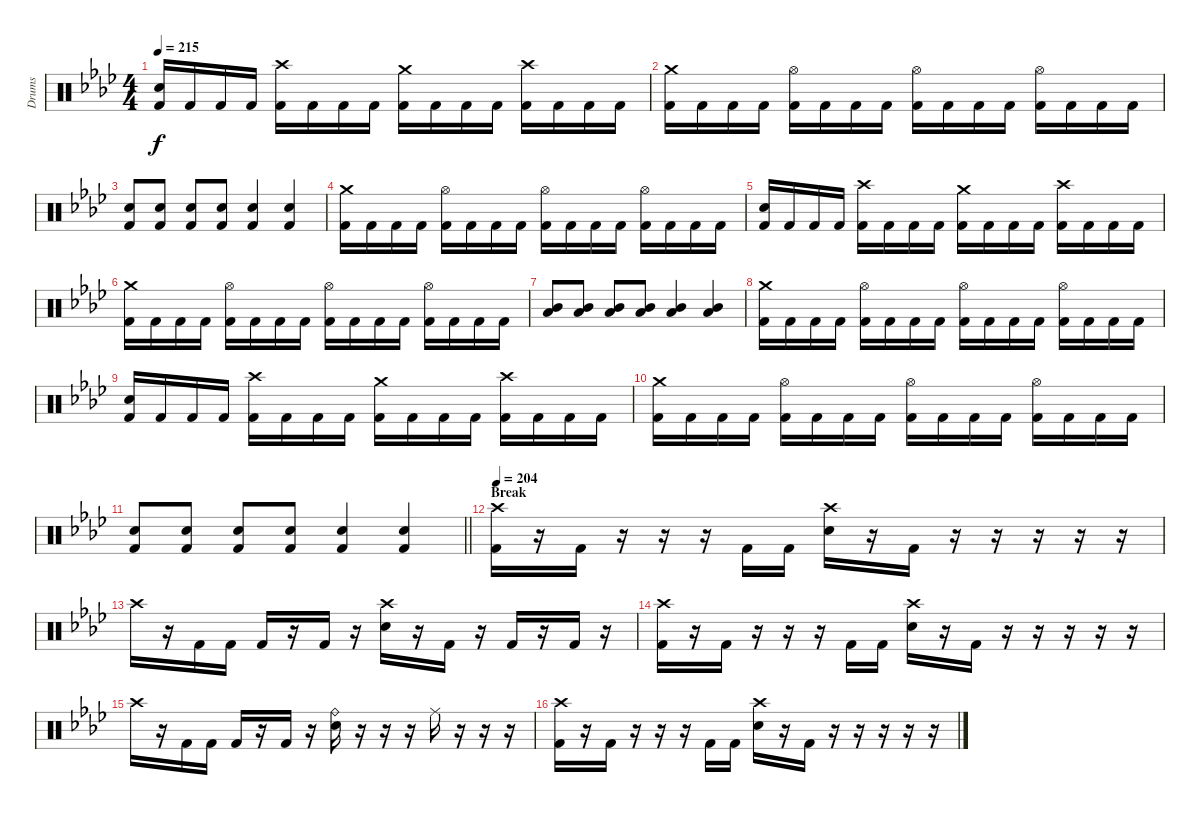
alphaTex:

\bracketExtendMode groupsimilarinstruments
\otherSystemsTrackNameOrientation horizontal
\track ("Guyot Begin-Benoit" "Drums") {instrument percussion}
\staff {score}
\articulation defaults
\ts (4 4)
\tempo 215
\clef neutral
\ks ab
("Snare (hit) 2"{acc forcenatural} "Kick (hit) 2"{acc forcenatural}).16{dy f beam Up} "Kick (hit) 2"{acc forcenatural}.16{beam Up} "Kick (hit) 2"{acc forcenatural}.16{beam Up} "Kick (hit) 2"{acc forcenatural}.16{beam Up} ("Crash high (hit)"{acc forcenatural} "Kick (hit) 2"{acc forcenatural}).16{beam Down} "Kick (hit) 2"{acc forcenatural}.16{beam Down} "Kick (hit) 2"{acc forcenatural}.16{beam Down} "Kick (hit) 2"{acc forcenatural}.16{beam Down} ("Crash medium (hit)"{acc forcenatural} "Kick (hit) 2"{acc forcenatural}).16{beam Down} "Kick (hit) 2"{acc forcenatural}.16{beam Down} "Kick (hit) 2"{acc forcenatural}.16{beam Down} "Kick (hit) 2"{acc forcenatural}.16{beam Down} ("Crash high (hit)"{acc forcenatural} "Kick (hit) 2"{acc forcenatural}).16{beam Down} "Kick (hit) 2"{acc forcenatural}.16{beam Down} "Kick (hit) 2"{acc forcenatural}.16{beam Down} "Kick (hit) 2"{acc forcenatural}.16{beam Down} |
("Crash medium (hit)"{acc forcenatural} "Kick (hit) 2"{acc forcenatural}).16{beam Down} "Kick (hit) 2"{acc forcenatural}.16{beam Down} "Kick (hit) 2"{acc forcenatural}.16{beam Down} "Kick (hit) 2"{acc forcenatural}.16{beam Down} ("Hi-Hat (open)"{acc forcenatural} "Kick (hit) 2"{acc forcenatural}).16{beam Down} "Kick (hit) 2"{acc forcenatural}.16{beam Down} "Kick (hit) 2"{acc forcenatural}.16{beam Down} "Kick (hit) 2"{acc forcenatural}.16{beam Down} ("Hi-Hat (open)"{acc forcenatural} "Kick (hit) 2"{acc forcenatural}).16{beam Down} "Kick (hit) 2"{acc forcenatural}.16{beam Down} "Kick (hit) 2"{acc forcenatural}.16{beam Down} "Kick (hit) 2"{acc forcenatural}.16{beam Down} ("Hi-Hat (open)"{acc forcenatural} "Kick (hit) 2"{acc forcenatural}).16{beam Down} "Kick (hit) 2"{acc forcenatural}.16{beam Down} "Kick (hit) 2"{acc forcenatural}.16{beam Down} "Kick (hit) 2"{acc forcenatural}.16{beam Down} |
("Snare (hit) 2"{acc forcenatural} "Kick (hit) 2"{acc forcenatural}).8{beam Up} ("Snare (hit) 2"{acc forcenatural} "Kick (hit) 2"{acc forcenatural}).8{beam Up} ("Snare (hit) 2"{acc forcenatural} "Kick (hit) 2"{acc forcenatural}).8{beam Up} ("Snare (hit) 2"{acc forcenatural} "Kick (hit) 2"{acc forcenatural}).8{beam Up} ("Snare (hit) 2"{acc forcenatural} "Kick (hit) 2"{acc forcenatural}).4{beam Up} ("Snare (hit) 2"{acc forcenatural} "Kick (hit) 2"{acc forcenatural}).4{beam Up} |
("Crash medium (hit)"{acc forcenatural} "Kick (hit) 2"{acc forcenatural}).16{beam Down} "Kick (hit) 2"{acc forcenatural}.16{beam Down} "Kick (hit) 2"{acc forcenatural}.16{beam Down} "Kick (hit) 2"{acc forcenatural}.16{beam Down} ("Hi-Hat (open)"{acc forcenatural} "Kick (hit) 2"{acc forcenatural}).16{beam Down} "Kick (hit) 2"{acc forcenatural}.16{beam Down} "Kick (hit) 2"{acc forcenatural}.16{beam Down} "Kick (hit) 2"{acc forcenatural}.16{beam Down} ("Hi-Hat (open)"{acc forcenatural} "Kick (hit) 2"{acc forcenatural}).16{beam Down} "Kick (hit) 2"{acc forcenatural}.16{beam Down} "Kick (hit) 2"{acc forcenatural}.16{beam Down} "Kick (hit) 2"{acc forcenatural}.16{beam Down} ("Hi-Hat (open)"{acc forcenatural} "Kick (hit) 2"{acc forcenatural}).16{beam Down} "Kick (hit) 2"{acc forcenatural}.16{beam Down} "Kick (hit) 2"{acc forcenatural}.16{beam Down} "Kick (hit) 2"{acc forcenatural}.16{beam Down} |
("Snare (hit) 2"{acc forcenatural} "Kick (hit) 2"{acc forcenatural}).16{beam Up} "Kick (hit) 2"{acc forcenatural}.16{beam Up} "Kick (hit) 2"{acc forcenatural}.16{beam Up} "Kick (hit) 2"{acc forcenatural}.16{beam Up} ("Crash high (hit)"{acc forcenatural} "Kick (hit) 2"{acc forcenatural}).16{beam Down} "Kick (hit) 2"{acc forcenatural}.16{beam Down} "Kick (hit) 2"{acc forcenatural}.16{beam Down} "Kick (hit) 2"{acc forcenatural}.16{beam Down} ("Crash medium (hit)"{acc forcenatural} "Kick (hit) 2"{acc forcenatural}).16{beam Down} "Kick (hit) 2"{acc forcenatural}.16{beam Down} "Kick (hit) 2"{acc forcenatural}.16{beam Down} "Kick (hit) 2"{acc forcenatural}.16{beam Down} ("Crash high (hit)"{acc forcenatural} "Kick (hit) 2"{acc forcenatural}).16{beam Down} "Kick (hit) 2"{acc forcenatural}.16{beam Down} "Kick (hit) 2"{acc forcenatural}.16{beam Down} "Kick (hit) 2"{acc forcenatural}.16{beam Down} |
("Crash medium (hit)"{acc forcenatural} "Kick (hit) 2"{acc forcenatural}).16{beam Down} "Kick (hit) 2"{acc forcenatural}.16{beam Down} "Kick (hit) 2"{acc forcenatural}.16{beam Down} "Kick (hit) 2"{acc forcenatural}.16{beam Down} ("Hi-Hat (open)"{acc forcenatural} "Kick (hit) 2"{acc forcenatural}).16{beam Down} "Kick (hit) 2"{acc forcenatural}.16{beam Down} "Kick (hit) 2"{acc forcenatural}.16{beam Down} "Kick (hit) 2"{acc forcenatural}.16{beam Down} ("Hi-Hat (open)"{acc forcenatural} "Kick (hit) 2"{acc forcenatural}).16{beam Down} "Kick (hit) 2"{acc forcenatural}.16{beam Down} "Kick (hit) 2"{acc forcenatural}.16{beam Down} "Kick (hit) 2"{acc forcenatural}.16{beam Down} ("Hi-Hat (open)"{acc forcenatural} "Kick (hit) 2"{acc forcenatural}).16{beam Down} "Kick (hit) 2"{acc forcenatural}.16{beam Down} "Kick (hit) 2"{acc forcenatural}.16{beam Down} "Kick (hit) 2"{acc forcenatural}.16{beam Down} |
("Mid Tom (hit)"{acc forcenatural} "Low Tom (hit)"{acc forcenatural}).8{beam Up} ("Mid Tom (hit)"{acc forcenatural} "Low Tom (hit)"{acc forcenatural}).8{beam Up} ("Mid Tom (hit)"{acc forcenatural} "Low Tom (hit)"{acc forcenatural}).8{beam Up} ("Mid Tom (hit)"{acc forcenatural} "Low Tom (hit)"{acc forcenatural}).8{beam Up} ("Mid Tom (hit)"{acc forcenatural} "Low Tom (hit)"{acc forcenatural}).4{beam Up} ("Mid Tom (hit)"{acc forcenatural} "Low Tom (hit)"{acc forcenatural}).4{beam Up} |
("Crash medium (hit)"{acc forcenatural} "Kick (hit) 2"{acc forcenatural}).16{beam Down} "Kick (hit) 2"{acc forcenatural}.16{beam Down} "Kick (hit) 2"{acc forcenatural}.16{beam Down} "Kick (hit) 2"{acc forcenatural}.16{beam Down} ("Hi-Hat (open)"{acc forcenatural} "Kick (hit) 2"{acc forcenatural}).16{beam Down} "Kick (hit) 2"{acc forcenatural}.16{beam Down} "Kick (hit) 2"{acc forcenatural}.16{beam Down} "Kick (hit) 2"{acc forcenatural}.16{beam Down} ("Hi-Hat (open)"{acc forcenatural} "Kick (hit) 2"{acc forcenatural}).16{beam Down} "Kick (hit) 2"{acc forcenatural}.16{beam Down} "Kick (hit) 2"{acc forcenatural}.16{beam Down} "Kick (hit) 2"{acc forcenatural}.16{beam Down} ("Hi-Hat (open)"{acc forcenatural} "Kick (hit) 2"{acc forcenatural}).16{beam Down} "Kick (hit) 2"{acc forcenatural}.16{beam Down} "Kick (hit) 2"{acc forcenatural}.16{beam Down} "Kick (hit) 2"{acc forcenatural}.16{beam Down} |
("Snare (hit) 2"{acc forcenatural} "Kick (hit) 2"{acc forcenatural}).16{beam Up} "Kick (hit) 2"{acc forcenatural}.16{beam Up} "Kick (hit) 2"{acc forcenatural}.16{beam Up} "Kick (hit) 2"{acc forcenatural}.16{beam Up} ("Crash high (hit)"{acc forcenatural} "Kick (hit) 2"{acc forcenatural}).16{beam Down} "Kick (hit) 2"{acc forcenatural}.16{beam Down} "Kick (hit) 2"{acc forcenatural}.16{beam Down} "Kick (hit) 2"{acc forcenatural}.16{beam Down} ("Crash medium (hit)"{acc forcenatural} "Kick (hit) 2"{acc forcenatural}).16{beam Down} "Kick (hit) 2"{acc forcenatural}.16{beam Down} "Kick (hit) 2"{acc forcenatural}.16{beam Down} "Kick (hit) 2"{acc forcenatural}.16{beam Down} ("Crash high (hit)"{acc forcenatural} "Kick (hit) 2"{acc forcenatural}).16{beam Down} "Kick (hit) 2"{acc forcenatural}.16{beam Down} "Kick (hit) 2"{acc forcenatural}.16{beam Down} "Kick (hit) 2"{acc forcenatural}.16{beam Down} |
("Crash medium (hit)"{acc forcenatural} "Kick (hit) 2"{acc forcenatural}).16{beam Down} "Kick (hit) 2"{acc forcenatural}.16{beam Down} "Kick (hit) 2"{acc forcenatural}.16{beam Down} "Kick (hit) 2"{acc forcenatural}.16{beam Down} ("Hi-Hat (open)"{acc forcenatural} "Kick (hit) 2"{acc forcenatural}).16{beam Down} "Kick (hit) 2"{acc forcenatural}.16{beam Down} "Kick (hit) 2"{acc forcenatural}.16{beam Down} "Kick (hit) 2"{acc forcenatural}.16{beam Down} ("Hi-Hat (open)"{acc forcenatural} "Kick (hit) 2"{acc forcenatural}).16{beam Down} "Kick (hit) 2"{acc forcenatural}.16{beam Down} "Kick (hit) 2"{acc forcenatural}.16{beam Down} "Kick (hit) 2"{acc forcenatural}.16{beam Down} ("Hi-Hat (open)"{acc forcenatural} "Kick (hit) 2"{acc forcenatural}).16{beam Down} "Kick (hit) 2"{acc forcenatural}.16{beam Down} "Kick (hit) 2"{acc forcenatural}.16{beam Down} "Kick (hit) 2"{acc forcenatural}.16{beam Down} |
\barLineRight lightlight
("Snare (hit) 2"{acc forcenatural} "Kick (hit) 2"{acc forcenatural}).8{beam Up} ("Snare (hit) 2"{acc forcenatural} "Kick (hit) 2"{acc forcenatural}).8{beam Up} ("Snare (hit) 2"{acc forcenatural} "Kick (hit) 2"{acc forcenatural}).8{beam Up} ("Snare (hit) 2"{acc forcenatural} "Kick (hit) 2"{acc forcenatural}).8{beam Up} ("Snare (hit) 2"{acc forcenatural} "Kick (hit) 2"{acc forcenatural}).4{beam Up} ("Snare (hit) 2"{acc forcenatural} "Kick (hit) 2"{acc forcenatural}).4{beam Up} |
\section ("" "Break")
\tempo 204
("Crash high (hit)"{acc forcenatural} "Kick (hit) 2"{acc forcenatural}).16{beam Down} r.16{beam Down} "Kick (hit) 2"{acc forcenatural}.16{beam Down} r.16{beam Down} r.16{beam Down} r.16{beam Down} "Kick (hit) 2"{acc forcenatural}.16{beam Up} "Kick (hit) 2"{acc forcenatural}.16{beam Up} ("Crash high (hit)"{acc forcenatural} "Snare (hit) 2"{acc forcenatural}).16{beam Down} r.16{beam Down} "Kick (hit) 2"{acc forcenatural}.16{beam Down} r.16{beam Down} r.16{beam Down} r.16{beam Down} r.16{beam Down} r.16{beam Down} |
"Crash high (hit)"{acc forcenatural}.16{beam Down} r.16{beam Down} "Kick (hit) 2"{acc forcenatural}.16{beam Down} "Kick (hit) 2"{acc forcenatural}.16{beam Down} "Kick (hit) 2"{acc forcenatural}.16{beam Up} r.16{beam Up} "Kick (hit) 2"{acc forcenatural}.16{beam Up} r.16{beam Up} ("Crash high (hit)"{acc forcenatural} "Snare (hit) 2"{acc forcenatural}).16{beam Down} r.16{beam Down} "Kick (hit) 2"{acc forcenatural}.16{beam Down} r.16{beam Down} "Kick (hit) 2"{acc forcenatural}.16{beam Up} r.16{beam Up} "Kick (hit) 2"{acc forcenatural}.16{beam Up} r.16{beam Up} |
("Crash high (hit)"{acc forcenatural} "Kick (hit) 2"{acc forcenatural}).16{beam Down} r.16{beam Down} "Kick (hit) 2"{acc forcenatural}.16{beam Down} r.16{beam Down} r.16{beam Down} r.16{beam Down} "Kick (hit) 2"{acc forcenatural}.16{beam Up} "Kick (hit) 2"{acc forcenatural}.16{beam Up} ("Crash high (hit)"{acc forcenatural} "Snare (hit) 2"{acc forcenatural}).16{beam Down} r.16{beam Down} "Kick (hit) 2"{acc forcenatural}.16{beam Down} r.16{beam Down} r.16{beam Down} r.16{beam Down} r.16{beam Down} r.16{beam Down} |
"Crash high (hit)"{acc forcenatural}.16{beam Down} r.16{beam Down} "Kick (hit) 2"{acc forcenatural}.16{beam Down} "Kick (hit) 2"{acc forcenatural}.16{beam Down} "Kick (hit) 2"{acc forcenatural}.16{beam Up} r.16{beam Up} "Kick (hit) 2"{acc forcenatural}.16{beam Up} r.16{beam Up} ("Ride (bell)"{acc forcenatural} "Snare (hit) 2"{acc forcenatural}).16{beam Down} r.16{beam Down} r.16{beam Down} r.16{beam Down} "Ride (middle)"{acc forcenatural}.16{beam Down} r.16{beam Down} r.16{beam Down} r.16{beam Down} |
("Crash high (hit)"{acc forcenatural} "Kick (hit) 2"{acc forcenatural}).16{beam Down} r.16{beam Down} "Kick (hit) 2"{acc forcenatural}.16{beam Down} r.16{beam Down} r.16{beam Down} r.16{beam Down} "Kick (hit) 2"{acc forcenatural}.16{beam Up} "Kick (hit) 2"{acc forcenatural}.16{beam Up} ("Crash high (hit)"{acc forcenatural} "Snare (hit) 2"{acc forcenatural}).16{beam Down} r.16{beam Down} "Kick (hit) 2"{acc forcenatural}.16{beam Down} r.16{beam Down} r.16{beam Down} r.16{beam Down} r.16{beam Down} r.16{beam Down}
